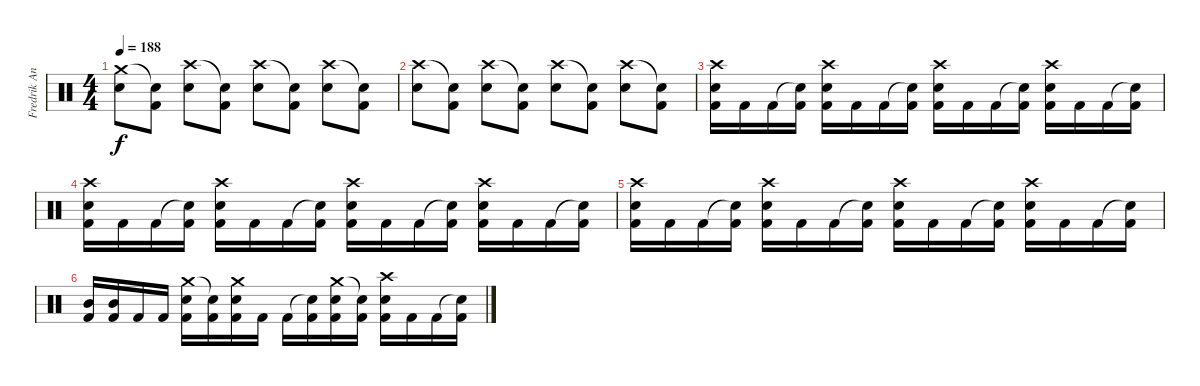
\track ("Fredrik Andersson" "Fredrik An") {instrument percussion}
\staff {score}
\articulation defaults
\ts (4 4)
\tempo 188
\clef neutral
\ks c
("Crash medium (hit)" "Snare (hit) 2").8{dy f} ("Snare (hit)"{t} "Kick (hit) 2").8 ("Crash high (hit)" "Snare (hit) 2").8 ("Snare (hit)"{t} "Kick (hit) 2").8 ("Crash high (hit)" "Snare (hit) 2").8 ("Snare (hit)"{t} "Kick (hit) 2").8 ("Crash high (hit)" "Snare (hit) 2").8 ("Snare (hit)"{t} "Kick (hit) 2").8 |
("Crash high (hit)" "Snare (hit) 2").8 ("Snare (hit)"{t} "Kick (hit) 2").8 ("Crash high (hit)" "Snare (hit) 2").8 ("Snare (hit)"{t} "Kick (hit) 2").8 ("Crash high (hit)" "Snare (hit) 2").8 ("Snare (hit)"{t} "Kick (hit) 2").8 ("Crash high (hit)" "Snare (hit) 2").8 ("Snare (hit)"{t} "Kick (hit) 2").8 |
("Crash high (hit)" "Snare (hit) 2" "Kick (hit) 2").16 "Kick (hit) 2".16 "Kick (hit) 2".16 ("Snare (hit)"{t} "Kick (hit) 2").16 ("Crash high (hit)" "Snare (hit) 2" "Kick (hit) 2").16 "Kick (hit) 2".16 "Kick (hit) 2".16 ("Snare (hit)"{t} "Kick (hit) 2").16 ("Crash high (hit)" "Snare (hit) 2" "Kick (hit) 2").16 "Kick (hit) 2".16 "Kick (hit) 2".16 ("Snare (hit)"{t} "Kick (hit) 2").16 ("Crash high (hit)" "Snare (hit) 2" "Kick (hit) 2").16 "Kick (hit) 2".16 "Kick (hit) 2".16 ("Snare (hit)"{t} "Kick (hit) 2").16 |
("Crash high (hit)" "Snare (hit) 2" "Kick (hit) 2").16 "Kick (hit) 2".16 "Kick (hit) 2".16 ("Snare (hit)"{t} "Kick (hit) 2").16 ("Crash high (hit)" "Snare (hit) 2" "Kick (hit) 2").16 "Kick (hit) 2".16 "Kick (hit) 2".16 ("Snare (hit)"{t} "Kick (hit) 2").16 ("Crash high (hit)" "Snare (hit) 2" "Kick (hit) 2").16 "Kick (hit) 2".16 "Kick (hit) 2".16 ("Snare (hit)"{t} "Kick (hit) 2").16 ("Crash high (hit)" "Snare (hit) 2" "Kick (hit) 2").16 "Kick (hit) 2".16 "Kick (hit) 2".16 ("Snare (hit)"{t} "Kick (hit) 2").16 |
("Crash high (hit)" "Snare (hit) 2" "Kick (hit) 2").16 "Kick (hit) 2".16 "Kick (hit) 2".16 ("Snare (hit)"{t} "Kick (hit) 2").16 ("Crash high (hit)" "Snare (hit) 2" "Kick (hit) 2").16 "Kick (hit) 2".16 "Kick (hit) 2".16 ("Snare (hit)"{t} "Kick (hit) 2").16 ("Crash high (hit)" "Snare (hit) 2" "Kick (hit) 2").16 "Kick (hit) 2".16 "Kick (hit) 2".16 ("Snare (hit)"{t} "Kick (hit) 2").16 ("Crash high (hit)" "Snare (hit) 2" "Kick (hit) 2").16 "Kick (hit) 2".16 "Kick (hit) 2".16 ("Snare (hit)"{t} "Kick (hit) 2").16 |
("Mid Tom (hit)" "Kick (hit) 2").16 ("Mid Tom (hit)" "Kick (hit) 2").16 "Kick (hit) 2".16 "Kick (hit) 2".16 ("Crash medium (hit)" "Snare (hit) 2" "Kick (hit) 2").16 ("Snare (hit)"{t} "Kick (hit) 2").16 ("Crash medium (hit)" "Snare (hit) 2" "Kick (hit) 2").16 "Kick (hit) 2".16 "Kick (hit) 2".16 ("Snare (hit)"{t} "Kick (hit) 2").16 ("Crash medium (hit)" "Snare (hit) 2" "Kick (hit) 2").16 ("Snare (hit)"{t} "Kick (hit) 2").16 ("Crash high (hit)" "Snare (hit) 2" "Kick (hit) 2").16 "Kick (hit) 2".16 "Kick (hit) 2".16 ("Snare (hit)"{t} "Kick (hit) 2").16
